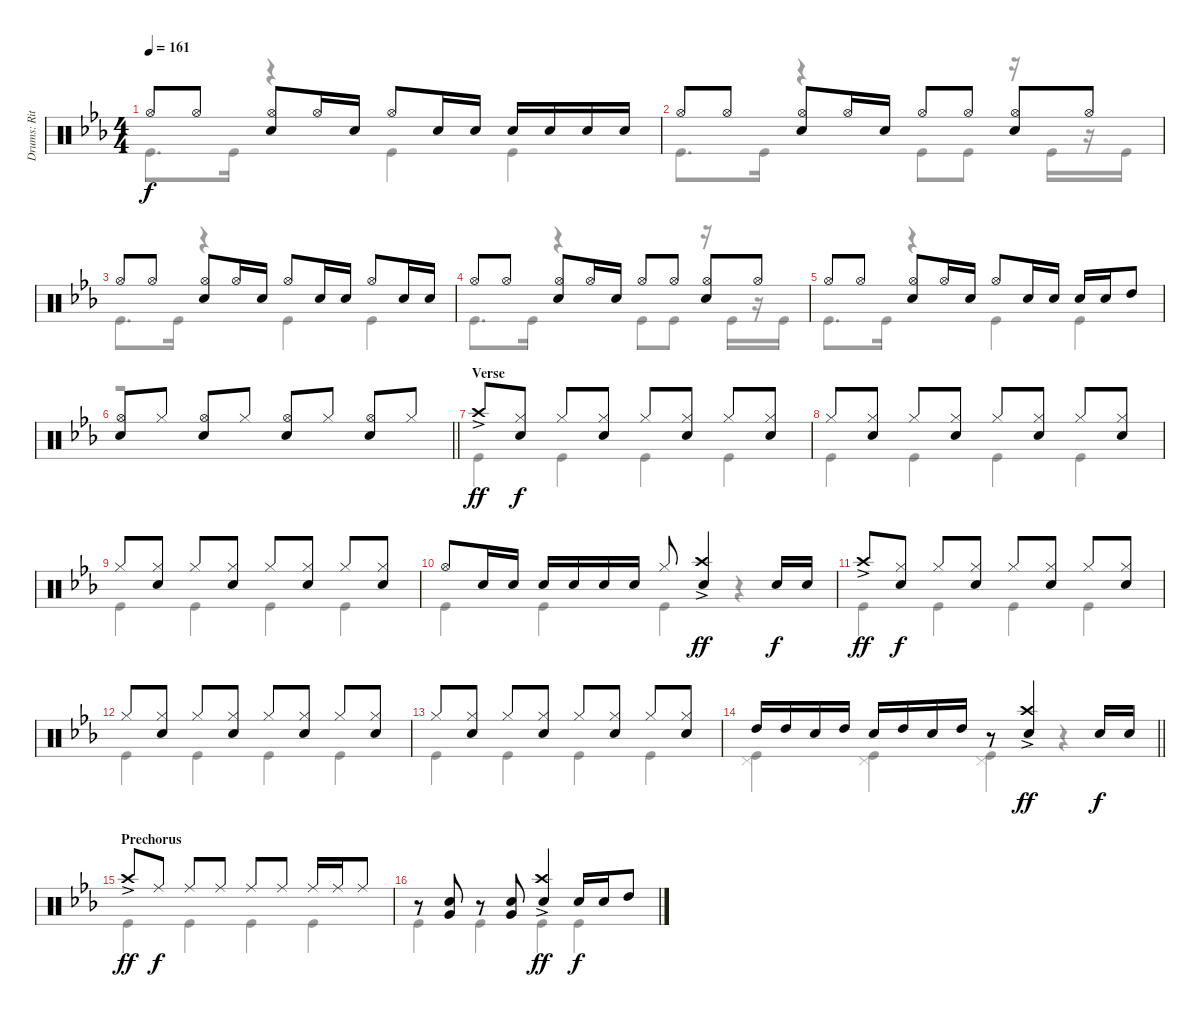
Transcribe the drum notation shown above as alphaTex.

\track ("Drums: Ritsu Tianaka" "Drums: Rit") {instrument percussion}
\staff {score}
\articulation defaults
\voice
\ts (4 4)
\tempo 161
\clef neutral
\ks eb "Hi-Hat (open)".8{dy f} "Hi-Hat (open)".8
("Hi-Hat (open)" "Snare (hit) 2").8 "Hi-Hat (open)".16 "Snare (hit) 2".16 "Hi-Hat (open)".8 "Snare (hit) 2".16 "Snare (hit) 2".16 "Snare (hit) 2".16 "Snare (hit) 2".16 "Snare (hit) 2".16 "Snare (hit) 2".16 |
"Hi-Hat (open)".8 "Hi-Hat (open)".8 ("Hi-Hat (open)" "Snare (hit) 2").8 "Hi-Hat (open)".16 "Snare (hit) 2".16 "Hi-Hat (open)".8 "Hi-Hat (open)".8 ("Hi-Hat (open)" "Snare (hit) 2").8 "Hi-Hat (open)".8 |
"Hi-Hat (open)".8 "Hi-Hat (open)".8 ("Hi-Hat (open)" "Snare (hit) 2").8 "Hi-Hat (open)".16 "Snare (hit) 2".16 "Hi-Hat (open)".8 "Snare (hit) 2".16 "Snare (hit) 2".16 "Hi-Hat (open)".8 "Snare (hit) 2".16 "Snare (hit) 2".16 |
"Hi-Hat (open)".8 "Hi-Hat (open)".8 ("Hi-Hat (open)" "Snare (hit) 2").8 "Hi-Hat (open)".16 "Snare (hit) 2".16 "Hi-Hat (open)".8 "Hi-Hat (open)".8 ("Hi-Hat (open)" "Snare (hit) 2").8 "Hi-Hat (open)".8 |
"Hi-Hat (open)".8 "Hi-Hat (open)".8 ("Hi-Hat (open)" "Snare (hit) 2").8 "Hi-Hat (open)".16 "Snare (hit) 2".16 "Hi-Hat (open)".8 "Snare (hit) 2".16 "Snare (hit) 2".16 "Snare (hit) 2".16 "Snare (hit) 2".16 "High Tom (hit)".8 |
\barLineRight lightlight
("Hi-Hat (open)" "Snare (hit) 2").8 "Hi-Hat (closed)".8 ("Hi-Hat (open)" "Snare (hit) 2").8 "Hi-Hat (closed)".8 ("Hi-Hat (open)" "Snare (hit) 2").8 "Hi-Hat (closed)".8 ("Hi-Hat (open)" "Snare (hit) 2").8 "Hi-Hat (closed)".8 |
\section ("" "Verse")
"Crash high (hit)"{ac}.8{dy ff} ("Hi-Hat (closed)" "Snare (hit) 2").8{dy f} "Hi-Hat (closed)".8 ("Hi-Hat (closed)" "Snare (hit) 2").8 "Hi-Hat (closed)".8 ("Hi-Hat (closed)" "Snare (hit) 2").8 "Hi-Hat (closed)".8 ("Hi-Hat (closed)" "Snare (hit) 2").8 |
"Hi-Hat (closed)".8 ("Hi-Hat (closed)" "Snare (hit) 2").8 "Hi-Hat (closed)".8 ("Hi-Hat (closed)" "Snare (hit) 2").8 "Hi-Hat (closed)".8 ("Hi-Hat (closed)" "Snare (hit) 2").8 "Hi-Hat (closed)".8 ("Hi-Hat (closed)" "Snare (hit) 2").8 |
"Hi-Hat (closed)".8 ("Hi-Hat (closed)" "Snare (hit) 2").8 "Hi-Hat (closed)".8 ("Hi-Hat (closed)" "Snare (hit) 2").8 "Hi-Hat (closed)".8 ("Hi-Hat (closed)" "Snare (hit) 2").8 "Hi-Hat (closed)".8 ("Hi-Hat (closed)" "Snare (hit) 2").8 |
"Hi-Hat (open)".8 "Snare (hit) 2".16 "Snare (hit) 2".16 "Snare (hit) 2".16 "Snare (hit) 2".16 "Snare (hit) 2".16 "Snare (hit) 2".16 "Hi-Hat (closed)".8 ("Crash high (hit)"{ac} "Snare (hit) 2").4{dy ff} "Snare (hit) 2".16{dy f} "Snare (hit) 2".16 |
"Crash high (hit)"{ac}.8{dy ff} ("Hi-Hat (closed)" "Snare (hit) 2").8{dy f} "Hi-Hat (closed)".8 ("Hi-Hat (closed)" "Snare (hit) 2").8 "Hi-Hat (closed)".8 ("Hi-Hat (closed)" "Snare (hit) 2").8 "Hi-Hat (closed)".8 ("Hi-Hat (closed)" "Snare (hit) 2").8 |
"Hi-Hat (closed)".8 ("Hi-Hat (closed)" "Snare (hit) 2").8 "Hi-Hat (closed)".8 ("Hi-Hat (closed)" "Snare (hit) 2").8 "Hi-Hat (closed)".8 ("Hi-Hat (closed)" "Snare (hit) 2").8 "Hi-Hat (closed)".8 ("Hi-Hat (closed)" "Snare (hit) 2").8 |
"Hi-Hat (closed)".8 ("Hi-Hat (closed)" "Snare (hit) 2").8 "Hi-Hat (closed)".8 ("Hi-Hat (closed)" "Snare (hit) 2").8 "Hi-Hat (closed)".8 ("Hi-Hat (closed)" "Snare (hit) 2").8 "Hi-Hat (closed)".8 ("Hi-Hat (closed)" "Snare (hit) 2").8 |
\barLineRight lightlight "High Tom (hit)".16 "High Tom (hit)".16 "Snare (hit) 2".16 "High Tom (hit)".16 "Snare (hit) 2".16 "High Tom (hit)".16 "Snare (hit) 2".16 "High Tom (hit)".16
r.8 ("Crash high (hit)"{ac} "Snare (hit) 2").4{dy ff} "Snare (hit) 2".16{dy f} "Snare (hit) 2".16 |
\section ("" "Prechorus")
"Crash high (hit)"{ac}.8{dy ff} "Ride (middle)".8{dy f} "Ride (middle)".8 "Ride (middle)".8 "Ride (middle)".8 "Ride (middle)".8 "Ride (middle)".16 "Ride (middle)".16 "Ride (middle)".8 |
r.8 ("Snare (hit) 2" "Very Low Tom (hit)").8 r.8 ("Snare (hit) 2" "Very Low Tom (hit)").8 ("Crash high (hit)"{ac} "Snare (hit) 2").4{dy ff} "Snare (hit) 2".16{dy f} "Snare (hit) 2".16 "High Tom (hit)".8
\voice
\clef neutral
\ottava regular
\simile none
\ks eb "Kick (hit)".8{d dy f} "Kick (hit)".16
r.4 "Kick (hit)".4 "Kick (hit)".4 |
"Kick (hit)".8{d} "Kick (hit)".16 r.4 "Kick (hit)".8 "Kick (hit)".8 r.16 "Kick (hit)".16 r.16 "Kick (hit)".16 |
"Kick (hit)".8{d} "Kick (hit)".16 r.4 "Kick (hit)".4 "Kick (hit)".4 |
"Kick (hit)".8{d} "Kick (hit)".16 r.4 "Kick (hit)".8 "Kick (hit)".8 r.16 "Kick (hit)".16 r.16 "Kick (hit)".16 |
"Kick (hit)".8{d} "Kick (hit)".16 r.4 "Kick (hit)".4 "Kick (hit)".4 |
\barLineRight lightlight
r.1 |
"Kick (hit)".4 "Kick (hit)".4 "Kick (hit)".4 "Kick (hit)".4 |
"Kick (hit)".4 "Kick (hit)".4 "Kick (hit)".4 "Kick (hit)".4 |
"Kick (hit)".4 "Kick (hit)".4 "Kick (hit)".4 "Kick (hit)".4 |
"Kick (hit)".4 "Kick (hit)".4 "Kick (hit)".4 r.4 |
"Kick (hit)".4 "Kick (hit)".4 "Kick (hit)".4 "Kick (hit)".4 |
"Kick (hit)".4 "Kick (hit)".4 "Kick (hit)".4 "Kick (hit)".4 |
"Kick (hit)".4 "Kick (hit)".4 "Kick (hit)".4 "Kick (hit)".4 |
\barLineRight lightlight
("Pedal Hi-Hat (hit)" "Kick (hit)").4 ("Pedal Hi-Hat (hit)" "Kick (hit)").4 ("Pedal Hi-Hat (hit)" "Kick (hit)").4 r.4 |
"Kick (hit)".4 "Kick (hit)".4 "Kick (hit)".4 "Kick (hit)".4 |
"Kick (hit)".4 "Kick (hit)".4 "Kick (hit)".4 "Kick (hit)".4
